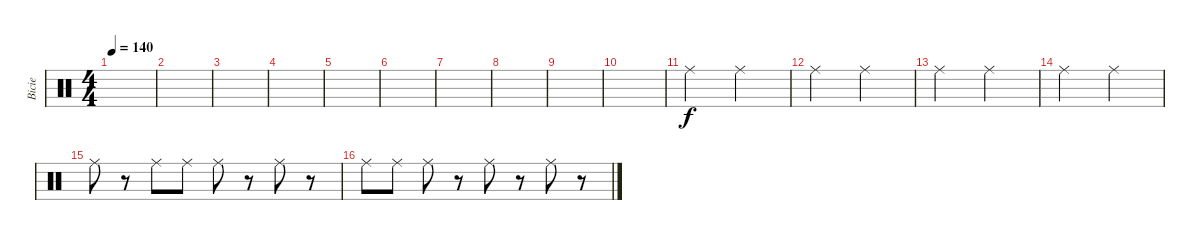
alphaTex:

\track ("Bicie" "Bicie") {instrument percussion}
\staff {score}
\articulation defaults
\ts (4 4)
\tempo 140
\clef neutral
\ks c
|
|
|
|
|
|
|
|
|
|
"Ride (middle)".2 "Ride (middle)".2 |
"Ride (middle)".2 "Ride (middle)".2 |
"Ride (middle)".2 "Ride (middle)".2 |
"Ride (middle)".2 "Ride (middle)".2 |
"Ride (middle)".8 r.8 "Ride (middle)".8 "Ride (middle)".8 "Ride (middle)".8 r.8 "Ride (middle)".8 r.8 |
"Ride (middle)".8 "Ride (middle)".8 "Ride (middle)".8 r.8 "Ride (middle)".8 r.8 "Ride (middle)".8 r.8
